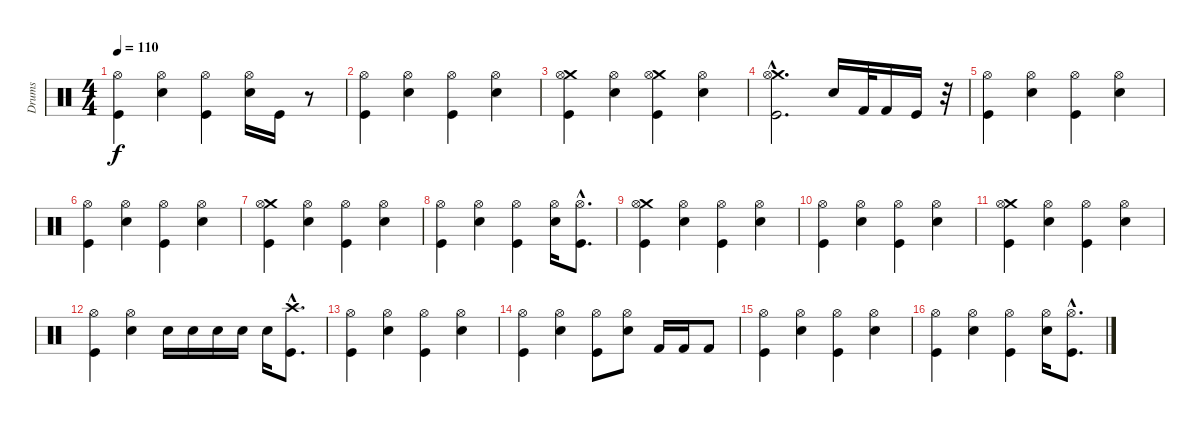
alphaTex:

\track ("Drums" "Drums") {instrument percussion}
\staff {score}
\articulation defaults
\ts (4 4)
\tempo 110
\clef neutral
\ks c
("Hi-Hat (open)" "Kick (hit)").4{dy f} ("Hi-Hat (open)" "Snare (hit) 2").4 ("Hi-Hat (open)" "Kick (hit)").4 ("Hi-Hat (open)" "Snare (hit) 2").16 "Kick (hit)".16 r.8 |
("Hi-Hat (open)" "Kick (hit)").4 ("Hi-Hat (open)" "Snare (hit) 2").4 ("Hi-Hat (open)" "Kick (hit)").4 ("Hi-Hat (open)" "Snare (hit) 2").4 |
("Crash medium (hit)" "Hi-Hat (open)" "Kick (hit)").4 ("Hi-Hat (open)" "Snare (hit) 2").4 ("Crash medium (hit)" "Hi-Hat (open)" "Kick (hit)").4 ("Hi-Hat (open)" "Snare (hit) 2").4 |
("Crash medium (hit)"{hac} "Hi-Hat (open)"{hac} "Kick (hit)"{hac}).2{d} "Snare (hit) 2".16 "Kick (hit) 2".32 "Kick (hit) 2".16 "Kick (hit)".16 r.32 |
("Hi-Hat (open)" "Kick (hit)").4 ("Hi-Hat (open)" "Snare (hit) 2").4 ("Hi-Hat (open)" "Kick (hit)").4 ("Hi-Hat (open)" "Snare (hit) 2").4 |
("Hi-Hat (open)" "Kick (hit)").4 ("Hi-Hat (open)" "Snare (hit) 2").4 ("Hi-Hat (open)" "Kick (hit)").4 ("Hi-Hat (open)" "Snare (hit) 2").4 |
("Crash medium (hit)" "Hi-Hat (open)" "Kick (hit)").4 ("Hi-Hat (open)" "Snare (hit) 2").4 ("Hi-Hat (open)" "Kick (hit)").4 ("Hi-Hat (open)" "Snare (hit) 2").4 |
("Hi-Hat (open)" "Kick (hit)").4 ("Hi-Hat (open)" "Snare (hit) 2").4 ("Hi-Hat (open)" "Kick (hit)").4 ("Hi-Hat (open)" "Snare (hit) 2").16 ("Hi-Hat (open)"{hac} "Kick (hit)"{hac}).8{d} |
("Crash medium (hit)" "Hi-Hat (open)" "Kick (hit)").4 ("Hi-Hat (open)" "Snare (hit) 2").4 ("Hi-Hat (open)" "Kick (hit)").4 ("Hi-Hat (open)" "Snare (hit) 2").4 |
("Hi-Hat (open)" "Kick (hit)").4 ("Hi-Hat (open)" "Snare (hit) 2").4 ("Hi-Hat (open)" "Kick (hit)").4 ("Hi-Hat (open)" "Snare (hit) 2").4 |
("Crash medium (hit)" "Hi-Hat (open)" "Kick (hit)").4 ("Hi-Hat (open)" "Snare (hit) 2").4 ("Hi-Hat (open)" "Kick (hit)").4 ("Hi-Hat (open)" "Snare (hit) 2").4 |
("Hi-Hat (open)" "Kick (hit)").4 ("Hi-Hat (open)" "Snare (hit) 2").4 "Snare (hit) 2".16 "Snare (hit) 2".16 "Snare (hit) 2".16 "Snare (hit) 2".16 "Snare (hit) 2".16 ("Crash high (hit)"{hac} "Kick (hit)"{hac}).8{d} |
("Hi-Hat (open)" "Kick (hit)").4 ("Hi-Hat (open)" "Snare (hit) 2").4 ("Hi-Hat (open)" "Kick (hit)").4 ("Hi-Hat (open)" "Snare (hit) 2").4 |
("Hi-Hat (open)" "Kick (hit)").4 ("Hi-Hat (open)" "Snare (hit) 2").4 ("Hi-Hat (open)" "Kick (hit)").8 ("Hi-Hat (open)" "Snare (hit) 2").8 "Kick (hit) 2".16 "Kick (hit) 2".16 "Kick (hit) 2".8 |
("Hi-Hat (open)" "Kick (hit)").4 ("Hi-Hat (open)" "Snare (hit) 2").4 ("Hi-Hat (open)" "Kick (hit)").4 ("Hi-Hat (open)" "Snare (hit) 2").4 |
("Hi-Hat (open)" "Kick (hit)").4 ("Hi-Hat (open)" "Snare (hit) 2").4 ("Hi-Hat (open)" "Kick (hit)").4 ("Hi-Hat (open)" "Snare (hit) 2").16 ("Hi-Hat (open)"{hac} "Kick (hit)"{hac}).8{d}
